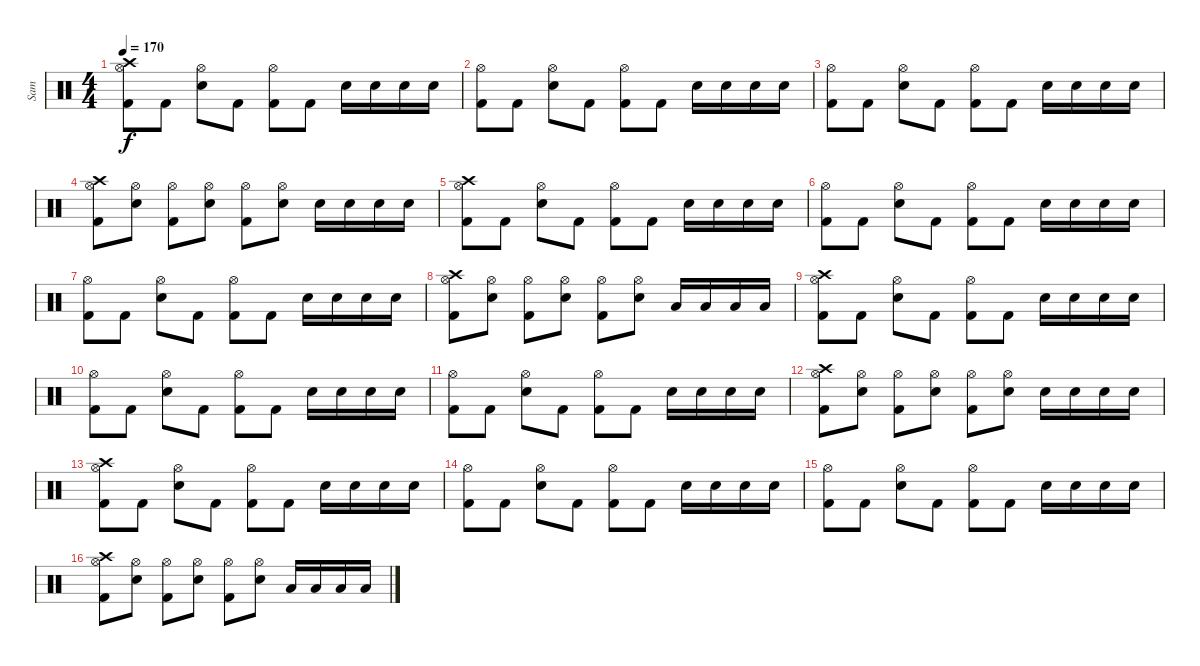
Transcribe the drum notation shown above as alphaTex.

\track ("Sam" "Sam") {instrument percussion}
\staff {score}
\articulation defaults
\ts (4 4)
\tempo 170
\clef neutral
\ks c
("Hi-Hat (open)" "Crash high (hit)" "Kick (hit) 2").8{dy f} "Kick (hit) 2".8 ("Hi-Hat (open)" "Electric Snare (hit)").8 "Kick (hit) 2".8 ("Hi-Hat (open)" "Kick (hit) 2").8 "Kick (hit) 2".8 "Electric Snare (hit)".16 "Electric Snare (hit)".16 "Electric Snare (hit)".16 "Electric Snare (hit)".16 |
("Hi-Hat (open)" "Kick (hit) 2").8 "Kick (hit) 2".8 ("Hi-Hat (open)" "Electric Snare (hit)").8 "Kick (hit) 2".8 ("Hi-Hat (open)" "Kick (hit) 2").8 "Kick (hit) 2".8 "Electric Snare (hit)".16 "Electric Snare (hit)".16 "Electric Snare (hit)".16 "Electric Snare (hit)".16 |
("Hi-Hat (open)" "Kick (hit) 2").8 "Kick (hit) 2".8 ("Hi-Hat (open)" "Electric Snare (hit)").8 "Kick (hit) 2".8 ("Hi-Hat (open)" "Kick (hit) 2").8 "Kick (hit) 2".8 "Electric Snare (hit)".16 "Electric Snare (hit)".16 "Electric Snare (hit)".16 "Electric Snare (hit)".16 |
("Hi-Hat (open)" "Crash high (hit)" "Kick (hit) 2").8 ("Hi-Hat (open)" "Electric Snare (hit)").8 ("Hi-Hat (open)" "Kick (hit) 2").8 ("Hi-Hat (open)" "Electric Snare (hit)").8 ("Hi-Hat (open)" "Kick (hit) 2").8 ("Hi-Hat (open)" "Electric Snare (hit)").8 "Electric Snare (hit)".16 "Electric Snare (hit)".16 "Electric Snare (hit)".16 "Electric Snare (hit)".16 |
("Hi-Hat (open)" "Crash high (hit)" "Kick (hit) 2").8 "Kick (hit) 2".8 ("Hi-Hat (open)" "Electric Snare (hit)").8 "Kick (hit) 2".8 ("Hi-Hat (open)" "Kick (hit) 2").8 "Kick (hit) 2".8 "Electric Snare (hit)".16 "Electric Snare (hit)".16 "Electric Snare (hit)".16 "Electric Snare (hit)".16 |
("Hi-Hat (open)" "Kick (hit) 2").8 "Kick (hit) 2".8 ("Hi-Hat (open)" "Electric Snare (hit)").8 "Kick (hit) 2".8 ("Hi-Hat (open)" "Kick (hit) 2").8 "Kick (hit) 2".8 "Electric Snare (hit)".16 "Electric Snare (hit)".16 "Electric Snare (hit)".16 "Electric Snare (hit)".16 |
("Hi-Hat (open)" "Kick (hit) 2").8 "Kick (hit) 2".8 ("Hi-Hat (open)" "Electric Snare (hit)").8 "Kick (hit) 2".8 ("Hi-Hat (open)" "Kick (hit) 2").8 "Kick (hit) 2".8 "Electric Snare (hit)".16 "Electric Snare (hit)".16 "Electric Snare (hit)".16 "Electric Snare (hit)".16 |
("Hi-Hat (open)" "Crash high (hit)" "Kick (hit) 2").8 ("Hi-Hat (open)" "Electric Snare (hit)").8 ("Hi-Hat (open)" "Kick (hit) 2").8 ("Hi-Hat (open)" "Electric Snare (hit)").8 ("Hi-Hat (open)" "Kick (hit) 2").8 ("Hi-Hat (open)" "Electric Snare (hit)").8 "Low Tom (hit)".16 "Low Tom (hit)".16 "Low Floor Tom (hit)".16 "Low Floor Tom (hit)".16 |
("Hi-Hat (open)" "Crash high (hit)" "Kick (hit) 2").8 "Kick (hit) 2".8 ("Hi-Hat (open)" "Electric Snare (hit)").8 "Kick (hit) 2".8 ("Hi-Hat (open)" "Kick (hit) 2").8 "Kick (hit) 2".8 "Electric Snare (hit)".16 "Electric Snare (hit)".16 "Electric Snare (hit)".16 "Electric Snare (hit)".16 |
("Hi-Hat (open)" "Kick (hit) 2").8 "Kick (hit) 2".8 ("Hi-Hat (open)" "Electric Snare (hit)").8 "Kick (hit) 2".8 ("Hi-Hat (open)" "Kick (hit) 2").8 "Kick (hit) 2".8 "Electric Snare (hit)".16 "Electric Snare (hit)".16 "Electric Snare (hit)".16 "Electric Snare (hit)".16 |
("Hi-Hat (open)" "Kick (hit) 2").8 "Kick (hit) 2".8 ("Hi-Hat (open)" "Electric Snare (hit)").8 "Kick (hit) 2".8 ("Hi-Hat (open)" "Kick (hit) 2").8 "Kick (hit) 2".8 "Electric Snare (hit)".16 "Electric Snare (hit)".16 "Electric Snare (hit)".16 "Electric Snare (hit)".16 |
("Hi-Hat (open)" "Crash high (hit)" "Kick (hit) 2").8 ("Hi-Hat (open)" "Electric Snare (hit)").8 ("Hi-Hat (open)" "Kick (hit) 2").8 ("Hi-Hat (open)" "Electric Snare (hit)").8 ("Hi-Hat (open)" "Kick (hit) 2").8 ("Hi-Hat (open)" "Electric Snare (hit)").8 "Electric Snare (hit)".16 "Electric Snare (hit)".16 "Electric Snare (hit)".16 "Electric Snare (hit)".16 |
("Hi-Hat (open)" "Crash high (hit)" "Kick (hit) 2").8 "Kick (hit) 2".8 ("Hi-Hat (open)" "Electric Snare (hit)").8 "Kick (hit) 2".8 ("Hi-Hat (open)" "Kick (hit) 2").8 "Kick (hit) 2".8 "Electric Snare (hit)".16 "Electric Snare (hit)".16 "Electric Snare (hit)".16 "Electric Snare (hit)".16 |
("Hi-Hat (open)" "Kick (hit) 2").8 "Kick (hit) 2".8 ("Hi-Hat (open)" "Electric Snare (hit)").8 "Kick (hit) 2".8 ("Hi-Hat (open)" "Kick (hit) 2").8 "Kick (hit) 2".8 "Electric Snare (hit)".16 "Electric Snare (hit)".16 "Electric Snare (hit)".16 "Electric Snare (hit)".16 |
("Hi-Hat (open)" "Kick (hit) 2").8 "Kick (hit) 2".8 ("Hi-Hat (open)" "Electric Snare (hit)").8 "Kick (hit) 2".8 ("Hi-Hat (open)" "Kick (hit) 2").8 "Kick (hit) 2".8 "Electric Snare (hit)".16 "Electric Snare (hit)".16 "Electric Snare (hit)".16 "Electric Snare (hit)".16 |
("Hi-Hat (open)" "Crash high (hit)" "Kick (hit) 2").8 ("Hi-Hat (open)" "Electric Snare (hit)").8 ("Hi-Hat (open)" "Kick (hit) 2").8 ("Hi-Hat (open)" "Electric Snare (hit)").8 ("Hi-Hat (open)" "Kick (hit) 2").8 ("Hi-Hat (open)" "Electric Snare (hit)").8 "Low Tom (hit)".16 "Low Tom (hit)".16 "Low Floor Tom (hit)".16 "Low Floor Tom (hit)".16
